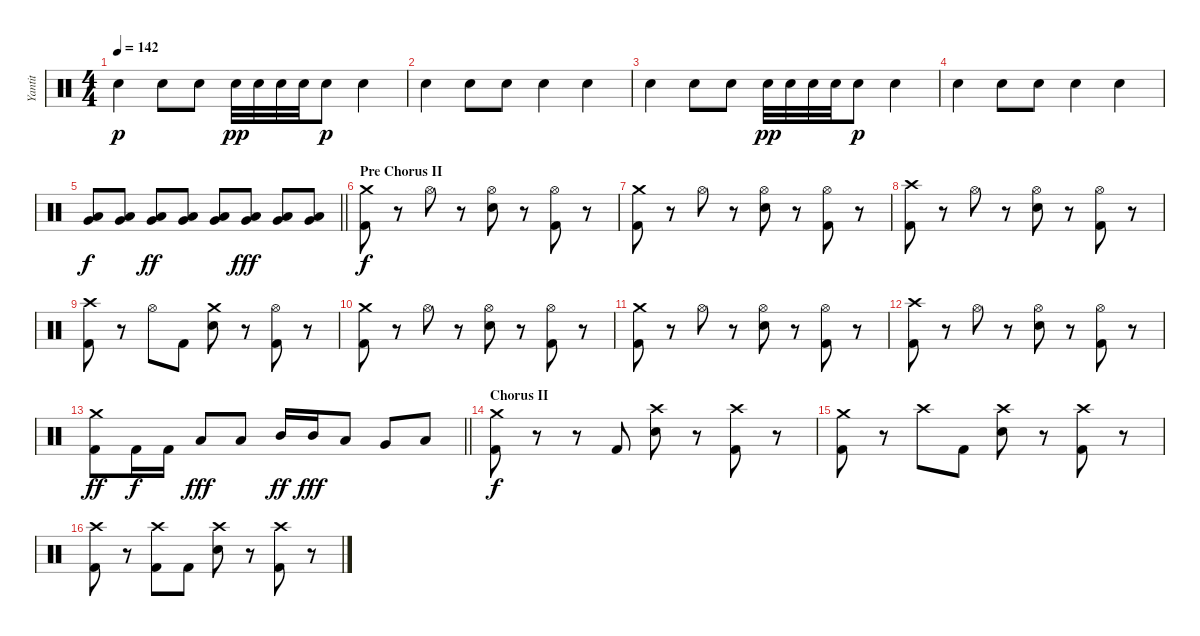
\track ("Yantit" "Yantit") {instrument percussion}
\staff {score}
\articulation defaults
\ts (4 4)
\tempo 142
\clef neutral
\ks c "Electric Snare (hit)".4{dy p} "Electric Snare (hit)".8 "Electric Snare (hit)".8 "Electric Snare (hit)".32{dy pp} "Electric Snare (hit)".32 "Electric Snare (hit)".32 "Electric Snare (hit)".32 "Electric Snare (hit)".8{dy p} "Electric Snare (hit)".4
|
"Electric Snare (hit)".4 "Electric Snare (hit)".8 "Electric Snare (hit)".8 "Electric Snare (hit)".4 "Electric Snare (hit)".4 |
"Electric Snare (hit)".4 "Electric Snare (hit)".8 "Electric Snare (hit)".8 "Electric Snare (hit)".32{dy pp} "Electric Snare (hit)".32 "Electric Snare (hit)".32 "Electric Snare (hit)".32 "Electric Snare (hit)".8{dy p} "Electric Snare (hit)".4 |
"Electric Snare (hit)".4 "Electric Snare (hit)".8 "Electric Snare (hit)".8 "Electric Snare (hit)".4 "Electric Snare (hit)".4 |
\barLineRight lightlight
("Very Low Tom (hit)" "Low Floor Tom (hit)").8{dy f} ("Very Low Tom (hit)" "Low Floor Tom (hit)").8 ("Very Low Tom (hit)" "Low Floor Tom (hit)").8{dy ff} ("Very Low Tom (hit)" "Low Floor Tom (hit)").8 ("Very Low Tom (hit)" "Low Floor Tom (hit)").8 ("Very Low Tom (hit)" "Low Floor Tom (hit)").8{dy fff} ("Very Low Tom (hit)" "Low Floor Tom (hit)").8 ("Very Low Tom (hit)" "Low Floor Tom (hit)").8 |
\section ("" "Pre Chorus II")
("Crash medium (hit)" "Kick (hit) 2").8{dy f} r.8 "Hi-Hat (open)".8 r.8 ("Hi-Hat (open)" "Electric Snare (hit)").8 r.8 ("Hi-Hat (open)" "Kick (hit) 2").8 r.8 |
("Crash medium (hit)" "Kick (hit) 2").8 r.8 "Hi-Hat (open)".8 r.8 ("Hi-Hat (open)" "Electric Snare (hit)").8 r.8 ("Hi-Hat (open)" "Kick (hit) 2").8 r.8 |
("Crash high (hit)" "Kick (hit) 2").8 r.8 "Hi-Hat (open)".8 r.8 ("Hi-Hat (open)" "Electric Snare (hit)").8 r.8 ("Hi-Hat (open)" "Kick (hit) 2").8 r.8 |
("Crash high (hit)" "Kick (hit) 2").8 r.8 "Hi-Hat (open)".8 "Kick (hit) 2".8 ("Crash medium (hit)" "Electric Snare (hit)").8 r.8 ("Hi-Hat (open)" "Kick (hit) 2").8 r.8 |
("Crash medium (hit)" "Kick (hit) 2").8 r.8 "Hi-Hat (open)".8 r.8 ("Hi-Hat (open)" "Electric Snare (hit)").8 r.8 ("Hi-Hat (open)" "Kick (hit) 2").8 r.8 |
("Crash medium (hit)" "Kick (hit) 2").8 r.8 "Hi-Hat (open)".8 r.8 ("Hi-Hat (open)" "Electric Snare (hit)").8 r.8 ("Hi-Hat (open)" "Kick (hit) 2").8 r.8 |
("Crash high (hit)" "Kick (hit) 2").8 r.8 "Hi-Hat (open)".8 r.8 ("Hi-Hat (open)" "Electric Snare (hit)").8 r.8 ("Hi-Hat (open)" "Kick (hit) 2").8 r.8 |
\barLineRight lightlight
("Crash medium (hit)" "Kick (hit) 2").8{dy ff} "Kick (hit) 2".16{dy f} "Kick (hit) 2".16 "Low Tom (hit)".8{dy fff} "Low Tom (hit)".8 "Mid Tom (hit)".16{dy ff} "Mid Tom (hit)".16{dy fff} "Low Tom (hit)".8 "Very Low Tom (hit)".8 "Low Floor Tom (hit)".8 |
\section ("" "Chorus II")
("Crash medium (hit)" "Kick (hit) 2").8{dy f} r.8 r.8 "Kick (hit) 2".8 ("Crash high (hit)" "Electric Snare (hit)").8 r.8 ("Crash high (hit)" "Kick (hit) 2").8 r.8 |
("Crash medium (hit)" "Kick (hit) 2").8 r.8 "Crash high (hit)".8 "Kick (hit) 2".8 ("Crash high (hit)" "Electric Snare (hit)").8 r.8 ("Crash high (hit)" "Kick (hit) 2").8 r.8 |
("Crash high (hit)" "Kick (hit) 2").8 r.8 ("Crash high (hit)" "Kick (hit) 2").8 "Kick (hit) 2".8 ("Crash high (hit)" "Electric Snare (hit)").8 r.8 ("Crash high (hit)" "Kick (hit) 2").8 r.8
